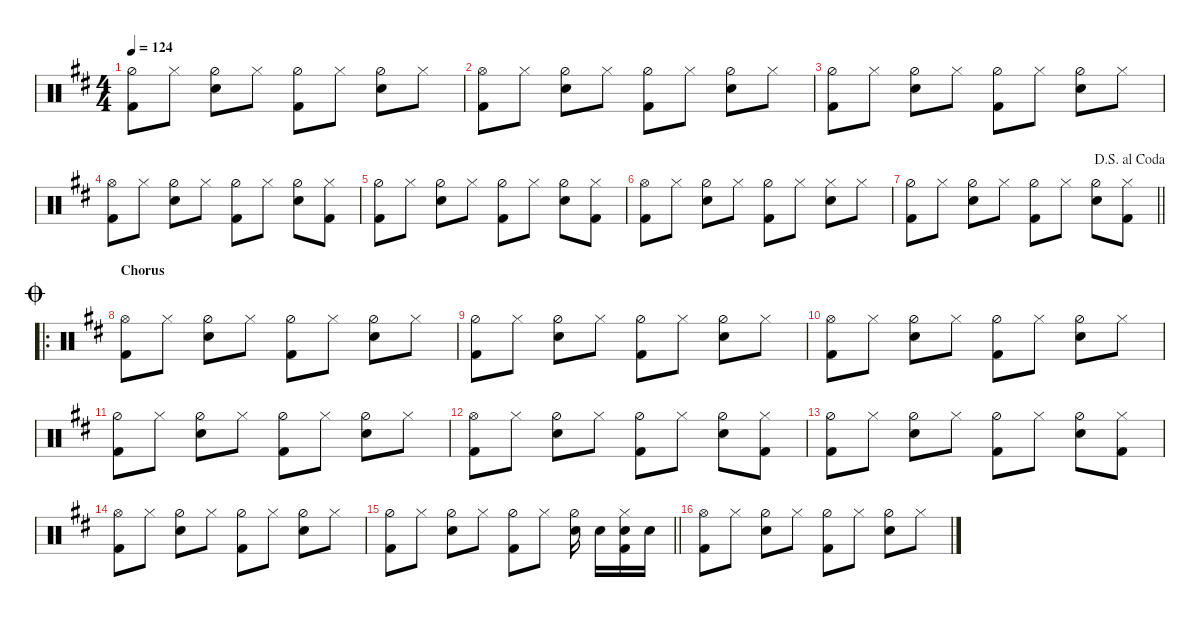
\hideDynamics
\bracketExtendMode nobrackets
\singleTrackTrackNamePolicy hidden
\multiTrackTrackNamePolicy hidden
\otherSystemsTrackNameOrientation horizontal
\track ("Drumkit" "Drums") {instrument percussion}
\staff {score}
\articulation defaults
\ts (4 4)
\tempo 124
\clef neutral
\ks bminor
("Kick (hit) 2"{acc forcenatural} "Hi-Hat (half)"{acc forcenatural}).8{dy f beam Down} "Hi-Hat (closed)"{acc forcenatural}.8{beam Down} ("Hi-Hat (half)"{acc forcenatural} "Snare (hit) 2"{acc forcenatural}).8{beam Down} "Hi-Hat (closed)"{acc forcenatural}.8{beam Down} ("Hi-Hat (half)"{acc forcenatural} "Kick (hit) 2"{acc forcenatural}).8{beam Down} "Hi-Hat (closed)"{acc forcenatural}.8{beam Down} ("Hi-Hat (half)"{acc forcenatural} "Snare (hit) 2"{acc forcenatural}).8{beam Down} "Hi-Hat (closed)"{acc forcenatural}.8{beam Down} |
("Kick (hit) 2"{acc forcenatural} "Hi-Hat (open)"{acc forcenatural}).8{beam Down} "Hi-Hat (closed)"{acc forcenatural}.8{beam Down} ("Hi-Hat (half)"{acc forcenatural} "Snare (hit) 2"{acc forcenatural}).8{beam Down} "Hi-Hat (closed)"{acc forcenatural}.8{beam Down} ("Hi-Hat (half)"{acc forcenatural} "Kick (hit) 2"{acc forcenatural}).8{beam Down} "Hi-Hat (closed)"{acc forcenatural}.8{beam Down} ("Hi-Hat (half)"{acc forcenatural} "Snare (hit) 2"{acc forcenatural}).8{beam Down} "Hi-Hat (closed)"{acc forcenatural}.8{beam Down} |
("Kick (hit) 2"{acc forcenatural} "Hi-Hat (half)"{acc forcenatural}).8{beam Down} "Hi-Hat (closed)"{acc forcenatural}.8{beam Down} ("Hi-Hat (half)"{acc forcenatural} "Snare (hit) 2"{acc forcenatural}).8{beam Down} "Hi-Hat (closed)"{acc forcenatural}.8{beam Down} ("Hi-Hat (half)"{acc forcenatural} "Kick (hit) 2"{acc forcenatural}).8{beam Down} "Hi-Hat (closed)"{acc forcenatural}.8{beam Down} ("Hi-Hat (half)"{acc forcenatural} "Snare (hit) 2"{acc forcenatural}).8{beam Down} "Hi-Hat (closed)"{acc forcenatural}.8{beam Down} |
("Kick (hit) 2"{acc forcenatural} "Hi-Hat (open)"{acc forcenatural}).8{beam Down} "Hi-Hat (closed)"{acc forcenatural}.8{beam Down} ("Hi-Hat (half)"{acc forcenatural} "Snare (hit) 2"{acc forcenatural}).8{beam Down} "Hi-Hat (closed)"{acc forcenatural}.8{beam Down} ("Hi-Hat (half)"{acc forcenatural} "Kick (hit) 2"{acc forcenatural}).8{beam Down} "Hi-Hat (closed)"{acc forcenatural}.8{beam Down} ("Hi-Hat (half)"{acc forcenatural} "Snare (hit) 2"{acc forcenatural}).8{beam Down} ("Hi-Hat (closed)"{acc forcenatural} "Kick (hit) 2"{acc forcenatural}).8{beam Down} |
("Kick (hit) 2"{acc forcenatural} "Hi-Hat (half)"{acc forcenatural}).8{beam Down} "Hi-Hat (closed)"{acc forcenatural}.8{beam Down} ("Hi-Hat (half)"{acc forcenatural} "Snare (hit) 2"{acc forcenatural}).8{beam Down} "Hi-Hat (closed)"{acc forcenatural}.8{beam Down} ("Hi-Hat (half)"{acc forcenatural} "Kick (hit) 2"{acc forcenatural}).8{beam Down} "Hi-Hat (closed)"{acc forcenatural}.8{beam Down} ("Hi-Hat (half)"{acc forcenatural} "Snare (hit) 2"{acc forcenatural}).8{beam Down} ("Hi-Hat (closed)"{acc forcenatural} "Kick (hit) 2"{acc forcenatural}).8{beam Down} |
("Kick (hit) 2"{acc forcenatural} "Hi-Hat (open)"{acc forcenatural}).8{beam Down} "Hi-Hat (closed)"{acc forcenatural}.8{beam Down} ("Hi-Hat (half)"{acc forcenatural} "Snare (hit) 2"{acc forcenatural}).8{beam Down} "Hi-Hat (closed)"{acc forcenatural}.8{beam Down} ("Hi-Hat (half)"{acc forcenatural} "Kick (hit) 2"{acc forcenatural}).8{beam Down} "Hi-Hat (closed)"{acc forcenatural}.8{beam Down} ("Hi-Hat (closed)"{acc forcenatural} "Snare (hit) 2"{acc forcenatural}).8{beam Down} "Hi-Hat (closed)"{acc forcenatural}.8{beam Down} |
\jump dalsegnoalcoda
\barLineRight lightlight
("Kick (hit) 2"{acc forcenatural} "Hi-Hat (half)"{acc forcenatural}).8{beam Down} "Hi-Hat (closed)"{acc forcenatural}.8{beam Down} ("Hi-Hat (half)"{acc forcenatural} "Snare (hit) 2"{acc forcenatural}).8{beam Down} "Hi-Hat (closed)"{acc forcenatural}.8{beam Down} ("Hi-Hat (half)"{acc forcenatural} "Kick (hit) 2"{acc forcenatural}).8{beam Down} "Hi-Hat (closed)"{acc forcenatural}.8{beam Down} ("Hi-Hat (half)"{acc forcenatural} "Snare (hit) 2"{acc forcenatural}).8{beam Down} ("Hi-Hat (closed)"{acc forcenatural} "Kick (hit) 2"{acc forcenatural}).8{beam Down} |
\ro
\section ("" "Chorus")
\jump coda
("Kick (hit) 2"{acc forcenatural} "Hi-Hat (open)"{acc forcenatural}).8{beam Down} "Hi-Hat (closed)"{acc forcenatural}.8{beam Down} ("Hi-Hat (half)"{acc forcenatural} "Snare (hit) 2"{acc forcenatural}).8{beam Down} "Hi-Hat (closed)"{acc forcenatural}.8{beam Down} ("Hi-Hat (half)"{acc forcenatural} "Kick (hit) 2"{acc forcenatural}).8{beam Down} "Hi-Hat (closed)"{acc forcenatural}.8{beam Down} ("Hi-Hat (half)"{acc forcenatural} "Snare (hit) 2"{acc forcenatural}).8{beam Down} "Hi-Hat (closed)"{acc forcenatural}.8{beam Down} |
("Kick (hit) 2"{acc forcenatural} "Hi-Hat (half)"{acc forcenatural}).8{beam Down} "Hi-Hat (closed)"{acc forcenatural}.8{beam Down} ("Hi-Hat (half)"{acc forcenatural} "Snare (hit) 2"{acc forcenatural}).8{beam Down} "Hi-Hat (closed)"{acc forcenatural}.8{beam Down} ("Hi-Hat (half)"{acc forcenatural} "Kick (hit) 2"{acc forcenatural}).8{beam Down} "Hi-Hat (closed)"{acc forcenatural}.8{beam Down} ("Hi-Hat (half)"{acc forcenatural} "Snare (hit) 2"{acc forcenatural}).8{beam Down} "Hi-Hat (closed)"{acc forcenatural}.8{beam Down} |
("Kick (hit) 2"{acc forcenatural} "Hi-Hat (open)"{acc forcenatural}).8{beam Down} "Hi-Hat (closed)"{acc forcenatural}.8{beam Down} ("Hi-Hat (half)"{acc forcenatural} "Snare (hit) 2"{acc forcenatural}).8{beam Down} "Hi-Hat (closed)"{acc forcenatural}.8{beam Down} ("Hi-Hat (half)"{acc forcenatural} "Kick (hit) 2"{acc forcenatural}).8{beam Down} "Hi-Hat (closed)"{acc forcenatural}.8{beam Down} ("Snare (hit) 2"{acc forcenatural} "Hi-Hat (half)"{acc forcenatural}).8{beam Down} "Hi-Hat (closed)"{acc forcenatural}.8{beam Down} |
("Kick (hit) 2"{acc forcenatural} "Hi-Hat (half)"{acc forcenatural}).8{beam Down} "Hi-Hat (closed)"{acc forcenatural}.8{beam Down} ("Hi-Hat (half)"{acc forcenatural} "Snare (hit) 2"{acc forcenatural}).8{beam Down} "Hi-Hat (closed)"{acc forcenatural}.8{beam Down} ("Hi-Hat (half)"{acc forcenatural} "Kick (hit) 2"{acc forcenatural}).8{beam Down} "Hi-Hat (closed)"{acc forcenatural}.8{beam Down} ("Hi-Hat (half)"{acc forcenatural} "Snare (hit) 2"{acc forcenatural}).8{beam Down} "Hi-Hat (closed)"{acc forcenatural}.8{beam Down} |
("Kick (hit) 2"{acc forcenatural} "Hi-Hat (open)"{acc forcenatural}).8{beam Down} "Hi-Hat (closed)"{acc forcenatural}.8{beam Down} ("Hi-Hat (half)"{acc forcenatural} "Snare (hit) 2"{acc forcenatural}).8{beam Down} "Hi-Hat (closed)"{acc forcenatural}.8{beam Down} ("Hi-Hat (half)"{acc forcenatural} "Kick (hit) 2"{acc forcenatural}).8{beam Down} "Hi-Hat (closed)"{acc forcenatural}.8{beam Down} ("Hi-Hat (half)"{acc forcenatural} "Snare (hit) 2"{acc forcenatural}).8{beam Down} ("Hi-Hat (closed)"{acc forcenatural} "Kick (hit) 2"{acc forcenatural}).8{beam Down} |
("Kick (hit) 2"{acc forcenatural} "Hi-Hat (half)"{acc forcenatural}).8{beam Down} "Hi-Hat (closed)"{acc forcenatural}.8{beam Down} ("Hi-Hat (half)"{acc forcenatural} "Snare (hit) 2"{acc forcenatural}).8{beam Down} "Hi-Hat (closed)"{acc forcenatural}.8{beam Down} ("Hi-Hat (half)"{acc forcenatural} "Kick (hit) 2"{acc forcenatural}).8{beam Down} "Hi-Hat (closed)"{acc forcenatural}.8{beam Down} ("Hi-Hat (half)"{acc forcenatural} "Snare (hit) 2"{acc forcenatural}).8{beam Down} ("Hi-Hat (closed)"{acc forcenatural} "Kick (hit) 2"{acc forcenatural}).8{beam Down} |
("Kick (hit) 2"{acc forcenatural} "Hi-Hat (open)"{acc forcenatural}).8{beam Down} "Hi-Hat (closed)"{acc forcenatural}.8{beam Down} ("Hi-Hat (half)"{acc forcenatural} "Snare (hit) 2"{acc forcenatural}).8{beam Down} "Hi-Hat (closed)"{acc forcenatural}.8{beam Down} ("Hi-Hat (half)"{acc forcenatural} "Kick (hit) 2"{acc forcenatural}).8{beam Down} "Hi-Hat (closed)"{acc forcenatural}.8{beam Down} ("Hi-Hat (half)"{acc forcenatural} "Snare (hit) 2"{acc forcenatural}).8{beam Down} "Hi-Hat (closed)"{acc forcenatural}.8{beam Down} |
\barLineRight lightlight
("Kick (hit) 2"{acc forcenatural} "Hi-Hat (half)"{acc forcenatural}).8{beam Down} "Hi-Hat (closed)"{acc forcenatural}.8{beam Down} ("Hi-Hat (half)"{acc forcenatural} "Snare (hit) 2"{acc forcenatural}).8{beam Down} "Hi-Hat (closed)"{acc forcenatural}.8{beam Down} ("Hi-Hat (half)"{acc forcenatural} "Kick (hit) 2"{acc forcenatural}).8{beam Down} "Hi-Hat (closed)"{acc forcenatural}.8{beam Down} ("Snare (hit) 2"{acc forcenatural} "Hi-Hat (half)"{acc forcenatural}).16{beam Down beam split} "Snare (hit) 2"{acc forcenatural}.16{beam Down} ("Hi-Hat (closed)"{acc forcenatural} "Snare (hit) 2"{acc forcenatural} "Kick (hit) 2"{acc forcenatural}).16{beam Down} "Snare (hit) 2"{acc forcenatural}.16{beam Down} |
("Kick (hit) 2"{acc forcenatural} "Hi-Hat (open)"{acc forcenatural}).8{beam Down} "Hi-Hat (closed)"{acc forcenatural}.8{beam Down} ("Hi-Hat (half)"{acc forcenatural} "Snare (hit) 2"{acc forcenatural}).8{beam Down} "Hi-Hat (closed)"{acc forcenatural}.8{beam Down} ("Hi-Hat (half)"{acc forcenatural} "Kick (hit) 2"{acc forcenatural}).8{beam Down} "Hi-Hat (closed)"{acc forcenatural}.8{beam Down} ("Hi-Hat (half)"{acc forcenatural} "Snare (hit) 2"{acc forcenatural}).8{beam Down} "Hi-Hat (closed)"{acc forcenatural}.8{beam Down}
